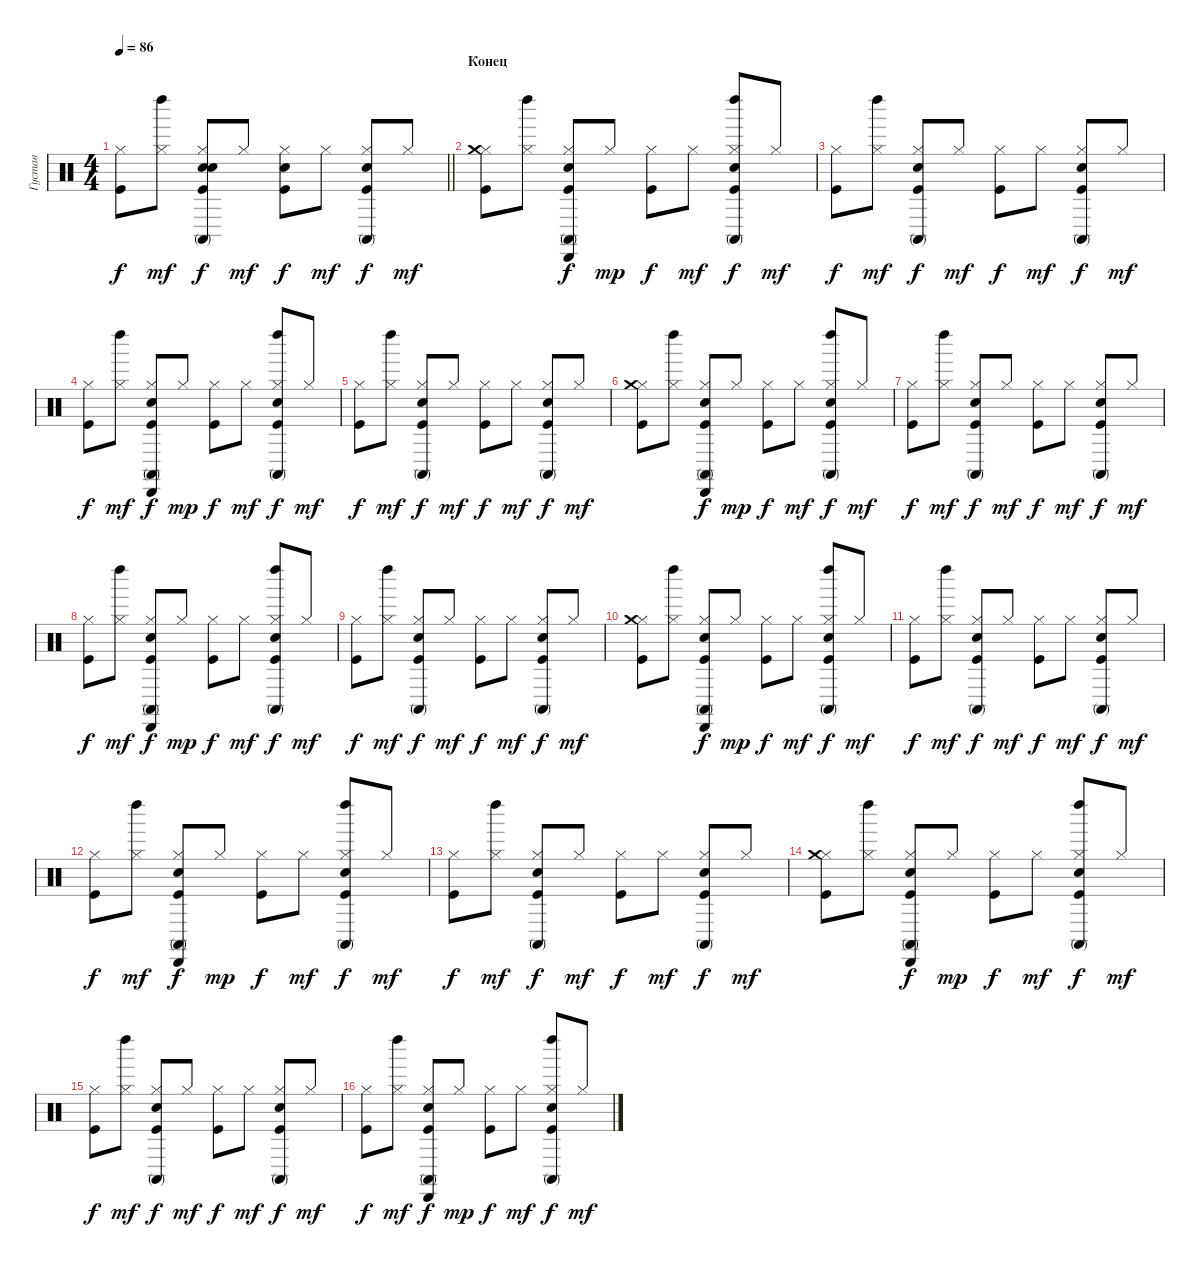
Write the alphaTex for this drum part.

\track ("Густав" "Густав") {instrument percussion}
\staff {score}
\articulation defaults
\ts (4 4)
\tempo 86
\clef neutral
\barLineRight lightlight
\ks c
("Hi-Hat (closed)" "Kick (hit)").8{dy f} ("Hi-Hat (closed)" "Left Maraca (hit)").8{dy mf} ("Snare (hit) 2" "Conga high (mute)" "Hi-Hat (closed)" "Kick (hit)" "Snare (hit) 2").8{dy f} "Hi-Hat (closed)".8{dy mf} ("Hi-Hat (closed)" "Kick (hit)" "Snare (hit) 2").8{dy f} "Hi-Hat (closed)".8{dy mf} ("Snare (hit) 2" "Conga high (mute)" "Hi-Hat (closed)" "Kick (hit)").8{dy f} "Hi-Hat (closed)".8{dy mf} |
\section ("" "Конец")
("Hi-Hat (closed)" "Crash medium (hit)" "Kick (hit)").8 ("Hi-Hat (closed)" "Left Maraca (hit)").8 ("Cabasa (hit)" "Snare (hit) 2" "Conga high (mute)" "Hi-Hat (closed)" "Kick (hit)").8{dy f} "Hi-Hat (closed)".8{dy mp} ("Hi-Hat (closed)" "Kick (hit)").8{dy f} "Hi-Hat (closed)".8{dy mf} ("Left Maraca (hit)" "Snare (hit) 2" "Conga high (mute)" "Hi-Hat (closed)" "Kick (hit)").8{dy f} "Hi-Hat (closed)".8{dy mf} |
("Hi-Hat (closed)" "Kick (hit)").8{dy f} ("Hi-Hat (closed)" "Left Maraca (hit)").8{dy mf} ("Snare (hit) 2" "Conga high (mute)" "Hi-Hat (closed)" "Kick (hit)").8{dy f} "Hi-Hat (closed)".8{dy mf} ("Hi-Hat (closed)" "Kick (hit)").8{dy f} "Hi-Hat (closed)".8{dy mf} ("Snare (hit) 2" "Conga high (mute)" "Hi-Hat (closed)" "Kick (hit)").8{dy f} "Hi-Hat (closed)".8{dy mf} |
("Hi-Hat (closed)" "Kick (hit)").8{dy f} ("Hi-Hat (closed)" "Left Maraca (hit)").8{dy mf} ("Cabasa (hit)" "Snare (hit) 2" "Conga high (mute)" "Hi-Hat (closed)" "Kick (hit)").8{dy f} "Hi-Hat (closed)".8{dy mp} ("Hi-Hat (closed)" "Kick (hit)").8{dy f} "Hi-Hat (closed)".8{dy mf} ("Left Maraca (hit)" "Snare (hit) 2" "Conga high (mute)" "Hi-Hat (closed)" "Kick (hit)").8{dy f} "Hi-Hat (closed)".8{dy mf} |
("Hi-Hat (closed)" "Kick (hit)").8{dy f} ("Hi-Hat (closed)" "Left Maraca (hit)").8{dy mf} ("Snare (hit) 2" "Conga high (mute)" "Hi-Hat (closed)" "Kick (hit)").8{dy f} "Hi-Hat (closed)".8{dy mf} ("Hi-Hat (closed)" "Kick (hit)").8{dy f} "Hi-Hat (closed)".8{dy mf} ("Snare (hit) 2" "Conga high (mute)" "Hi-Hat (closed)" "Kick (hit)").8{dy f} "Hi-Hat (closed)".8{dy mf} |
("Hi-Hat (closed)" "Crash medium (hit)" "Kick (hit)").8 ("Hi-Hat (closed)" "Left Maraca (hit)").8 ("Cabasa (hit)" "Snare (hit) 2" "Conga high (mute)" "Hi-Hat (closed)" "Kick (hit)").8{dy f} "Hi-Hat (closed)".8{dy mp} ("Hi-Hat (closed)" "Kick (hit)").8{dy f} "Hi-Hat (closed)".8{dy mf} ("Left Maraca (hit)" "Snare (hit) 2" "Conga high (mute)" "Hi-Hat (closed)" "Kick (hit)").8{dy f} "Hi-Hat (closed)".8{dy mf} |
("Hi-Hat (closed)" "Kick (hit)").8{dy f} ("Hi-Hat (closed)" "Left Maraca (hit)").8{dy mf} ("Snare (hit) 2" "Conga high (mute)" "Hi-Hat (closed)" "Kick (hit)").8{dy f} "Hi-Hat (closed)".8{dy mf} ("Hi-Hat (closed)" "Kick (hit)").8{dy f} "Hi-Hat (closed)".8{dy mf} ("Snare (hit) 2" "Conga high (mute)" "Hi-Hat (closed)" "Kick (hit)").8{dy f} "Hi-Hat (closed)".8{dy mf} |
("Hi-Hat (closed)" "Kick (hit)").8{dy f} ("Hi-Hat (closed)" "Left Maraca (hit)").8{dy mf} ("Cabasa (hit)" "Snare (hit) 2" "Conga high (mute)" "Hi-Hat (closed)" "Kick (hit)").8{dy f} "Hi-Hat (closed)".8{dy mp} ("Hi-Hat (closed)" "Kick (hit)").8{dy f} "Hi-Hat (closed)".8{dy mf} ("Left Maraca (hit)" "Snare (hit) 2" "Conga high (mute)" "Hi-Hat (closed)" "Kick (hit)").8{dy f} "Hi-Hat (closed)".8{dy mf} |
("Hi-Hat (closed)" "Kick (hit)").8{dy f} ("Hi-Hat (closed)" "Left Maraca (hit)").8{dy mf} ("Snare (hit) 2" "Conga high (mute)" "Hi-Hat (closed)" "Kick (hit)").8{dy f} "Hi-Hat (closed)".8{dy mf} ("Hi-Hat (closed)" "Kick (hit)").8{dy f} "Hi-Hat (closed)".8{dy mf} ("Snare (hit) 2" "Conga high (mute)" "Hi-Hat (closed)" "Kick (hit)").8{dy f} "Hi-Hat (closed)".8{dy mf} |
("Hi-Hat (closed)" "Crash medium (hit)" "Kick (hit)").8 ("Hi-Hat (closed)" "Left Maraca (hit)").8 ("Cabasa (hit)" "Snare (hit) 2" "Conga high (mute)" "Hi-Hat (closed)" "Kick (hit)").8{dy f} "Hi-Hat (closed)".8{dy mp} ("Hi-Hat (closed)" "Kick (hit)").8{dy f} "Hi-Hat (closed)".8{dy mf} ("Left Maraca (hit)" "Snare (hit) 2" "Conga high (mute)" "Hi-Hat (closed)" "Kick (hit)").8{dy f} "Hi-Hat (closed)".8{dy mf} |
("Hi-Hat (closed)" "Kick (hit)").8{dy f} ("Hi-Hat (closed)" "Left Maraca (hit)").8{dy mf} ("Snare (hit) 2" "Conga high (mute)" "Hi-Hat (closed)" "Kick (hit)").8{dy f} "Hi-Hat (closed)".8{dy mf} ("Hi-Hat (closed)" "Kick (hit)").8{dy f} "Hi-Hat (closed)".8{dy mf} ("Snare (hit) 2" "Conga high (mute)" "Hi-Hat (closed)" "Kick (hit)").8{dy f} "Hi-Hat (closed)".8{dy mf} |
("Hi-Hat (closed)" "Kick (hit)").8{dy f} ("Hi-Hat (closed)" "Left Maraca (hit)").8{dy mf} ("Cabasa (hit)" "Snare (hit) 2" "Conga high (mute)" "Hi-Hat (closed)" "Kick (hit)").8{dy f} "Hi-Hat (closed)".8{dy mp} ("Hi-Hat (closed)" "Kick (hit)").8{dy f} "Hi-Hat (closed)".8{dy mf} ("Left Maraca (hit)" "Snare (hit) 2" "Conga high (mute)" "Hi-Hat (closed)" "Kick (hit)").8{dy f} "Hi-Hat (closed)".8{dy mf} |
("Hi-Hat (closed)" "Kick (hit)").8{dy f} ("Hi-Hat (closed)" "Left Maraca (hit)").8{dy mf} ("Snare (hit) 2" "Conga high (mute)" "Hi-Hat (closed)" "Kick (hit)").8{dy f} "Hi-Hat (closed)".8{dy mf} ("Hi-Hat (closed)" "Kick (hit)").8{dy f} "Hi-Hat (closed)".8{dy mf} ("Snare (hit) 2" "Conga high (mute)" "Hi-Hat (closed)" "Kick (hit)").8{dy f} "Hi-Hat (closed)".8{dy mf} |
("Hi-Hat (closed)" "Crash medium (hit)" "Kick (hit)").8 ("Hi-Hat (closed)" "Left Maraca (hit)").8 ("Cabasa (hit)" "Snare (hit) 2" "Conga high (mute)" "Hi-Hat (closed)" "Kick (hit)").8{dy f} "Hi-Hat (closed)".8{dy mp} ("Hi-Hat (closed)" "Kick (hit)").8{dy f} "Hi-Hat (closed)".8{dy mf} ("Left Maraca (hit)" "Snare (hit) 2" "Conga high (mute)" "Hi-Hat (closed)" "Kick (hit)").8{dy f} "Hi-Hat (closed)".8{dy mf} |
("Hi-Hat (closed)" "Kick (hit)").8{dy f} ("Hi-Hat (closed)" "Left Maraca (hit)").8{dy mf} ("Snare (hit) 2" "Conga high (mute)" "Hi-Hat (closed)" "Kick (hit)").8{dy f} "Hi-Hat (closed)".8{dy mf} ("Hi-Hat (closed)" "Kick (hit)").8{dy f} "Hi-Hat (closed)".8{dy mf} ("Snare (hit) 2" "Conga high (mute)" "Hi-Hat (closed)" "Kick (hit)").8{dy f} "Hi-Hat (closed)".8{dy mf} |
("Hi-Hat (closed)" "Kick (hit)").8{dy f} ("Hi-Hat (closed)" "Left Maraca (hit)").8{dy mf} ("Cabasa (hit)" "Snare (hit) 2" "Conga high (mute)" "Hi-Hat (closed)" "Kick (hit)").8{dy f} "Hi-Hat (closed)".8{dy mp} ("Hi-Hat (closed)" "Kick (hit)").8{dy f} "Hi-Hat (closed)".8{dy mf} ("Left Maraca (hit)" "Snare (hit) 2" "Conga high (mute)" "Hi-Hat (closed)" "Kick (hit)").8{dy f} "Hi-Hat (closed)".8{dy mf}
